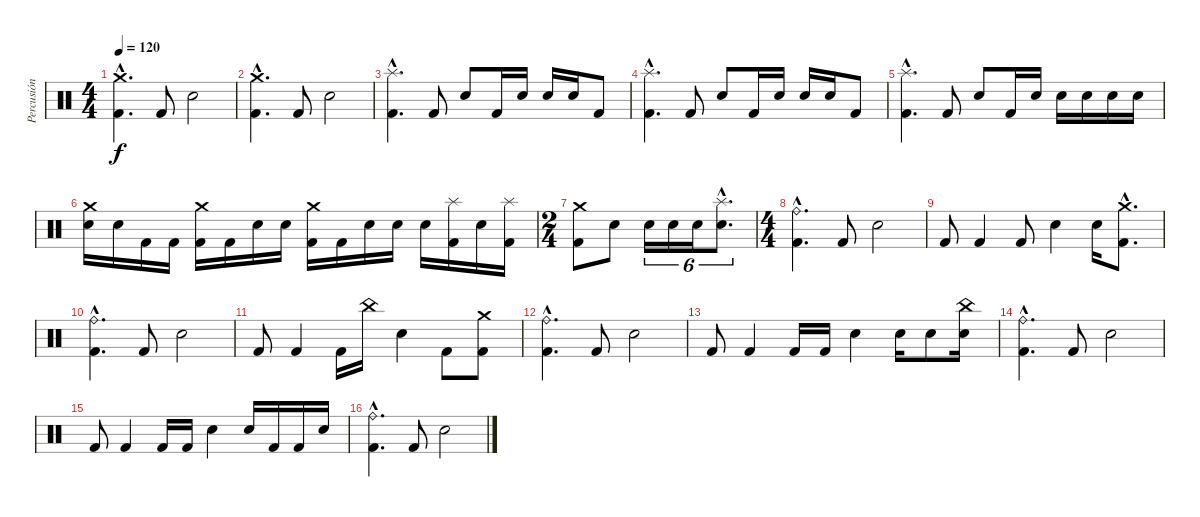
\track ("Percusión" "Percusión") {instrument percussion}
\staff {score}
\articulation defaults
\ts (4 4)
\tempo 120
\clef neutral
\ks c
("Crash medium (hit)"{hac} "Kick (hit) 2"{hac}).4{d dy f} "Kick (hit) 2".8 "Electric Snare (hit)".2 |
("Crash medium (hit)"{hac} "Kick (hit) 2"{hac}).4{d} "Kick (hit) 2".8 "Electric Snare (hit)".2 |
("Splash (hit)"{hac} "Kick (hit) 2"{hac}).4{d} "Kick (hit) 2".8 "Electric Snare (hit)".8 "Kick (hit) 2".16 "Electric Snare (hit)".16 "Electric Snare (hit)".16 "Electric Snare (hit)".16 "Kick (hit) 2".8 |
("Splash (hit)"{hac} "Kick (hit) 2"{hac}).4{d} "Kick (hit) 2".8 "Electric Snare (hit)".8 "Kick (hit) 2".16 "Electric Snare (hit)".16 "Electric Snare (hit)".16 "Electric Snare (hit)".16 "Kick (hit) 2".8 |
("Splash (hit)"{hac} "Kick (hit) 2"{hac}).4{d} "Kick (hit) 2".8 "Electric Snare (hit)".8 "Kick (hit) 2".16 "Electric Snare (hit)".16 "Electric Snare (hit)".16 "Electric Snare (hit)".16 "Electric Snare (hit)".16 "Electric Snare (hit)".16 |
("Crash medium (hit)" "Electric Snare (hit)").16 "Electric Snare (hit)".16 "Kick (hit) 2".16 "Kick (hit) 2".16 ("Crash medium (hit)" "Kick (hit) 2").16 "Kick (hit) 2".16 "Electric Snare (hit)".16 "Electric Snare (hit)".16 ("Crash medium (hit)" "Kick (hit) 2").16 "Kick (hit) 2".16 "Electric Snare (hit)".16 "Electric Snare (hit)".16 "Electric Snare (hit)".16 ("Splash (hit)" "Kick (hit) 2").16 "Electric Snare (hit)".16 ("Splash (hit)" "Kick (hit) 2").16 |
\ts (2 4)
("Crash medium (hit)" "Kick (hit) 2").8 "Electric Snare (hit)".8 "Electric Snare (hit)".16{tu (6 4)} "Electric Snare (hit)".16{tu (6 4)} "Electric Snare (hit)".16{tu (6 4)} ("Splash (hit)"{hac} "Electric Snare (hit)"{hac}).8{d tu (6 4)} |
\ts (4 4)
("Ride (bell)"{hac} "Kick (hit) 2"{hac}).4{d} "Kick (hit) 2".8 "Electric Snare (hit)".2 |
"Kick (hit) 2".8 "Kick (hit) 2".4 "Kick (hit) 2".8 "Electric Snare (hit)".4 "Electric Snare (hit)".16 ("Crash medium (hit)"{hac} "Kick (hit) 2"{hac}).8{d} |
("Ride (bell)"{hac} "Kick (hit) 2"{hac}).4{d} "Kick (hit) 2".8 "Electric Snare (hit)".2 |
"Kick (hit) 2".8 "Kick (hit) 2".4 "Kick (hit) 2".16 "China (hit)".16 "Electric Snare (hit)".4 "Kick (hit) 2".8 ("Crash medium (hit)" "Kick (hit) 2").8 |
("Ride (bell)"{hac} "Kick (hit) 2"{hac}).4{d} "Kick (hit) 2".8 "Electric Snare (hit)".2 |
"Kick (hit) 2".8 "Kick (hit) 2".4 "Kick (hit) 2".16 "Kick (hit) 2".16 "Electric Snare (hit)".4 "Electric Snare (hit)".16 "Electric Snare (hit)".8 ("China (hit)" "Electric Snare (hit)").16 |
("Ride (bell)"{hac} "Kick (hit) 2"{hac}).4{d} "Kick (hit) 2".8 "Electric Snare (hit)".2 |
"Kick (hit) 2".8 "Kick (hit) 2".4 "Kick (hit) 2".16 "Kick (hit) 2".16 "Electric Snare (hit)".4 "Electric Snare (hit)".16 "Kick (hit) 2".16 "Kick (hit) 2".16 "Electric Snare (hit)".16 |
("Ride (bell)"{hac} "Kick (hit) 2"{hac}).4{d} "Kick (hit) 2".8 "Electric Snare (hit)".2
